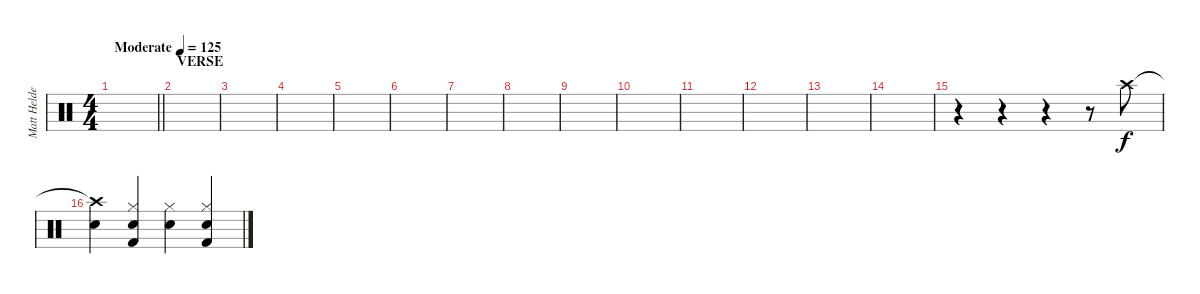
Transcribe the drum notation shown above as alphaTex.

\track ("Matt Helders" "Matt Helde") {instrument percussion}
\staff {score}
\articulation defaults
\ts (4 4)
\tempo (125 "Moderate")
\clef neutral
\barLineRight lightlight
\ks c
|
\section ("" "VERSE")
|
|
|
|
|
|
|
|
|
|
|
|
|
r.4 r.4 r.4 r.8 "Crash high (hit)".8 |
("Crash high (hit)"{t} "Electric Snare (hit)").4 ("Hi-Hat (closed)" "Electric Snare (hit)" "Kick (hit) 2").4 ("Hi-Hat (closed)" "Electric Snare (hit)").4 ("Hi-Hat (closed)" "Electric Snare (hit)" "Kick (hit) 2").4
